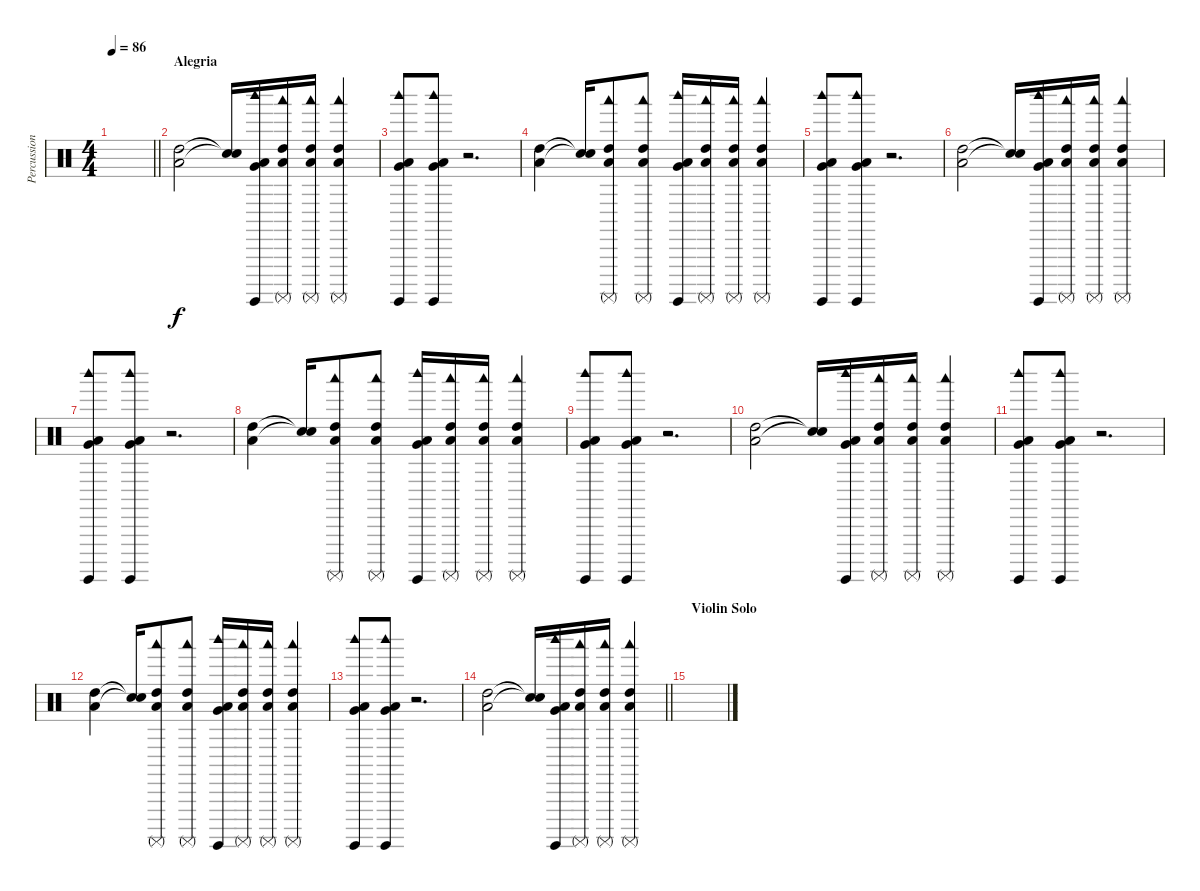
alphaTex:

\track ("Percussion 2" "Percussion") {instrument percussion}
\staff {score}
\articulation defaults
\ts (4 4)
\tempo 86
\clef neutral
\barLineRight lightlight
\ks c
|
\section ("" "Alegria")
("High Tom (hit)" "Low Tom (hit)").2 ("Snare (hit)"{t} "Snare (hit)"{t}).16 ("Low Tom (hit)" "Woodblock high (hit)" "Surdo (hit)" "Very Low Tom (hit)").16 ("High Tom (hit)" "Woodblock low (hit)" "Surdo (mute)" "Low Tom (hit)").16 ("High Tom (hit)" "Woodblock low (hit)" "Surdo (mute)" "Low Tom (hit)").16 ("High Tom (hit)" "Woodblock low (hit)" "Surdo (mute)" "Low Tom (hit)").4 |
("Low Tom (hit)" "Woodblock high (hit)" "Surdo (hit)" "Very Low Tom (hit)").8 ("Low Tom (hit)" "Woodblock high (hit)" "Surdo (hit)" "Very Low Tom (hit)").8 r.2{d} |
("High Tom (hit)" "Low Tom (hit)").4 ("Snare (hit)"{t} "Snare (hit)"{t}).16 ("High Tom (hit)" "Woodblock low (hit)" "Surdo (mute)" "Low Tom (hit)").8 ("High Tom (hit)" "Woodblock low (hit)" "Surdo (mute)" "Low Tom (hit)").8 ("Low Tom (hit)" "Woodblock high (hit)" "Surdo (hit)" "Very Low Tom (hit)").16 ("High Tom (hit)" "Woodblock low (hit)" "Surdo (mute)" "Low Tom (hit)").16 ("High Tom (hit)" "Woodblock low (hit)" "Surdo (mute)" "Low Tom (hit)").16 ("High Tom (hit)" "Woodblock low (hit)" "Surdo (mute)" "Low Tom (hit)").4 |
("Low Tom (hit)" "Woodblock high (hit)" "Surdo (hit)" "Very Low Tom (hit)").8 ("Low Tom (hit)" "Woodblock high (hit)" "Surdo (hit)" "Very Low Tom (hit)").8 r.2{d} |
("High Tom (hit)" "Low Tom (hit)").2 ("Snare (hit)"{t} "Snare (hit)"{t}).16 ("Low Tom (hit)" "Woodblock high (hit)" "Surdo (hit)" "Very Low Tom (hit)").16 ("High Tom (hit)" "Woodblock low (hit)" "Surdo (mute)" "Low Tom (hit)").16 ("High Tom (hit)" "Woodblock low (hit)" "Surdo (mute)" "Low Tom (hit)").16 ("High Tom (hit)" "Woodblock low (hit)" "Surdo (mute)" "Low Tom (hit)").4 |
("Low Tom (hit)" "Woodblock high (hit)" "Surdo (hit)" "Very Low Tom (hit)").8 ("Low Tom (hit)" "Woodblock high (hit)" "Surdo (hit)" "Very Low Tom (hit)").8 r.2{d} |
("High Tom (hit)" "Low Tom (hit)").4 ("Snare (hit)"{t} "Snare (hit)"{t}).16 ("High Tom (hit)" "Woodblock low (hit)" "Surdo (mute)" "Low Tom (hit)").8 ("High Tom (hit)" "Woodblock low (hit)" "Surdo (mute)" "Low Tom (hit)").8 ("Low Tom (hit)" "Woodblock high (hit)" "Surdo (hit)" "Very Low Tom (hit)").16 ("High Tom (hit)" "Woodblock low (hit)" "Surdo (mute)" "Low Tom (hit)").16 ("High Tom (hit)" "Woodblock low (hit)" "Surdo (mute)" "Low Tom (hit)").16 ("High Tom (hit)" "Woodblock low (hit)" "Surdo (mute)" "Low Tom (hit)").4 |
("Low Tom (hit)" "Woodblock high (hit)" "Surdo (hit)" "Very Low Tom (hit)").8 ("Low Tom (hit)" "Woodblock high (hit)" "Surdo (hit)" "Very Low Tom (hit)").8 r.2{d} |
("High Tom (hit)" "Low Tom (hit)").2 ("Snare (hit)"{t} "Snare (hit)"{t}).16 ("Low Tom (hit)" "Woodblock high (hit)" "Surdo (hit)" "Very Low Tom (hit)").16 ("High Tom (hit)" "Woodblock low (hit)" "Surdo (mute)" "Low Tom (hit)").16 ("High Tom (hit)" "Woodblock low (hit)" "Surdo (mute)" "Low Tom (hit)").16 ("High Tom (hit)" "Woodblock low (hit)" "Surdo (mute)" "Low Tom (hit)").4 |
("Low Tom (hit)" "Woodblock high (hit)" "Surdo (hit)" "Very Low Tom (hit)").8 ("Low Tom (hit)" "Woodblock high (hit)" "Surdo (hit)" "Very Low Tom (hit)").8 r.2{d} |
("High Tom (hit)" "Low Tom (hit)").4 ("Snare (hit)"{t} "Snare (hit)"{t}).16 ("High Tom (hit)" "Woodblock low (hit)" "Surdo (mute)" "Low Tom (hit)").8 ("High Tom (hit)" "Woodblock low (hit)" "Surdo (mute)" "Low Tom (hit)").8 ("Low Tom (hit)" "Woodblock high (hit)" "Surdo (hit)" "Very Low Tom (hit)").16 ("High Tom (hit)" "Woodblock low (hit)" "Surdo (mute)" "Low Tom (hit)").16 ("High Tom (hit)" "Woodblock low (hit)" "Surdo (mute)" "Low Tom (hit)").16 ("High Tom (hit)" "Woodblock low (hit)" "Surdo (mute)" "Low Tom (hit)").4 |
("Low Tom (hit)" "Woodblock high (hit)" "Surdo (hit)" "Very Low Tom (hit)").8 ("Low Tom (hit)" "Woodblock high (hit)" "Surdo (hit)" "Very Low Tom (hit)").8 r.2{d} |
\barLineRight lightlight
("High Tom (hit)" "Low Tom (hit)").2 ("Snare (hit)"{t} "Snare (hit)"{t}).16 ("Low Tom (hit)" "Woodblock high (hit)" "Surdo (hit)" "Very Low Tom (hit)").16 ("High Tom (hit)" "Woodblock low (hit)" "Surdo (mute)" "Low Tom (hit)").16 ("High Tom (hit)" "Woodblock low (hit)" "Surdo (mute)" "Low Tom (hit)").16 ("High Tom (hit)" "Woodblock low (hit)" "Surdo (mute)" "Low Tom (hit)").4 |
\section ("" "Violin Solo")
